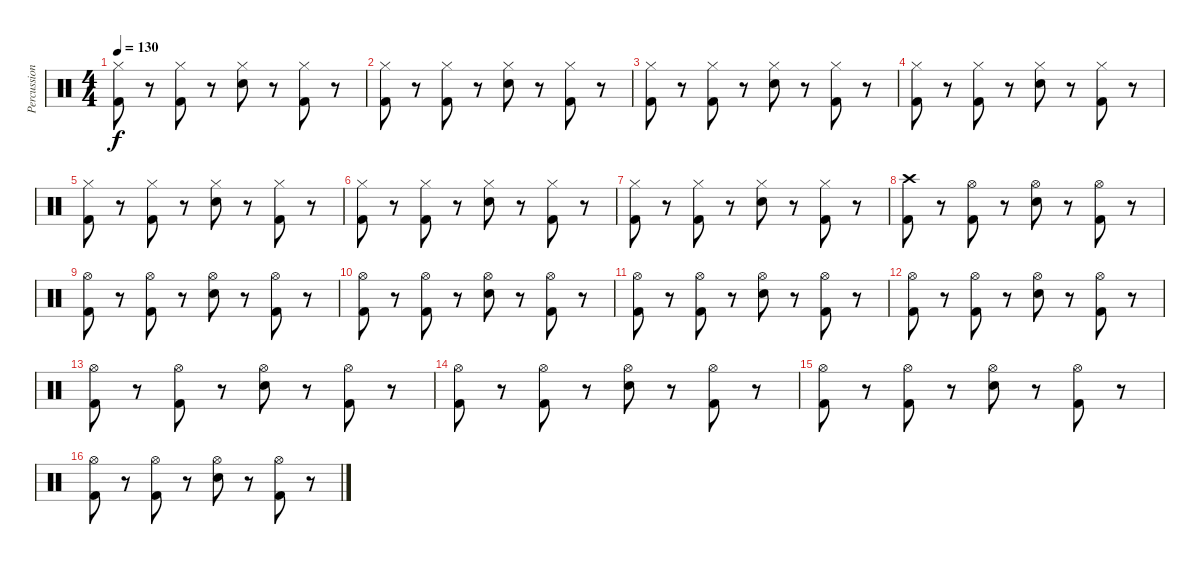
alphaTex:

\track ("Percussion" "Percussion") {instrument percussion}
\staff {score}
\articulation defaults
\ts (4 4)
\tempo 130
\clef neutral
\ks c
("Hi-Hat (closed)" "Kick (hit) 2").8{dy f} r.8 ("Hi-Hat (closed)" "Kick (hit) 2").8 r.8 ("Hi-Hat (closed)" "Snare (hit) 2").8 r.8 ("Hi-Hat (closed)" "Kick (hit) 2").8 r.8 |
("Hi-Hat (closed)" "Kick (hit) 2").8 r.8 ("Hi-Hat (closed)" "Kick (hit) 2").8 r.8 ("Hi-Hat (closed)" "Snare (hit) 2").8 r.8 ("Hi-Hat (closed)" "Kick (hit) 2").8 r.8 |
("Hi-Hat (closed)" "Kick (hit) 2").8 r.8 ("Hi-Hat (closed)" "Kick (hit) 2").8 r.8 ("Hi-Hat (closed)" "Snare (hit) 2").8 r.8 ("Hi-Hat (closed)" "Kick (hit) 2").8 r.8 |
("Hi-Hat (closed)" "Kick (hit) 2").8 r.8 ("Hi-Hat (closed)" "Kick (hit) 2").8 r.8 ("Hi-Hat (closed)" "Snare (hit) 2").8 r.8 ("Hi-Hat (closed)" "Kick (hit) 2").8 r.8 |
("Hi-Hat (closed)" "Kick (hit) 2").8 r.8 ("Hi-Hat (closed)" "Kick (hit) 2").8 r.8 ("Hi-Hat (closed)" "Snare (hit) 2").8 r.8 ("Hi-Hat (closed)" "Kick (hit) 2").8 r.8 |
("Hi-Hat (closed)" "Kick (hit) 2").8 r.8 ("Hi-Hat (closed)" "Kick (hit) 2").8 r.8 ("Hi-Hat (closed)" "Snare (hit) 2").8 r.8 ("Hi-Hat (closed)" "Kick (hit) 2").8 r.8 |
("Hi-Hat (closed)" "Kick (hit) 2").8 r.8 ("Hi-Hat (closed)" "Kick (hit) 2").8 r.8 ("Hi-Hat (closed)" "Snare (hit) 2").8 r.8 ("Hi-Hat (closed)" "Kick (hit) 2").8 r.8 |
("Crash high (hit)" "Kick (hit) 2").8 r.8 ("Hi-Hat (open)" "Kick (hit) 2").8 r.8 ("Hi-Hat (open)" "Snare (hit) 2").8 r.8 ("Hi-Hat (open)" "Kick (hit) 2").8 r.8 |
("Hi-Hat (open)" "Kick (hit) 2").8 r.8 ("Hi-Hat (open)" "Kick (hit) 2").8 r.8 ("Hi-Hat (open)" "Snare (hit) 2").8 r.8 ("Hi-Hat (open)" "Kick (hit) 2").8 r.8 |
("Hi-Hat (open)" "Kick (hit) 2").8 r.8 ("Hi-Hat (open)" "Kick (hit) 2").8 r.8 ("Hi-Hat (open)" "Snare (hit) 2").8 r.8 ("Hi-Hat (open)" "Kick (hit) 2").8 r.8 |
("Hi-Hat (open)" "Kick (hit) 2").8 r.8 ("Hi-Hat (open)" "Kick (hit) 2").8 r.8 ("Hi-Hat (open)" "Snare (hit) 2").8 r.8 ("Hi-Hat (open)" "Kick (hit) 2").8 r.8 |
("Hi-Hat (open)" "Kick (hit) 2").8 r.8 ("Hi-Hat (open)" "Kick (hit) 2").8 r.8 ("Hi-Hat (open)" "Snare (hit) 2").8 r.8 ("Hi-Hat (open)" "Kick (hit) 2").8 r.8 |
("Hi-Hat (open)" "Kick (hit) 2").8 r.8 ("Hi-Hat (open)" "Kick (hit) 2").8 r.8 ("Hi-Hat (open)" "Snare (hit) 2").8 r.8 ("Hi-Hat (open)" "Kick (hit) 2").8 r.8 |
("Hi-Hat (open)" "Kick (hit) 2").8 r.8 ("Hi-Hat (open)" "Kick (hit) 2").8 r.8 ("Hi-Hat (open)" "Snare (hit) 2").8 r.8 ("Hi-Hat (open)" "Kick (hit) 2").8 r.8 |
("Hi-Hat (open)" "Kick (hit) 2").8 r.8 ("Hi-Hat (open)" "Kick (hit) 2").8 r.8 ("Hi-Hat (open)" "Snare (hit) 2").8 r.8 ("Hi-Hat (open)" "Kick (hit) 2").8 r.8 |
("Hi-Hat (open)" "Kick (hit) 2").8 r.8 ("Hi-Hat (open)" "Kick (hit) 2").8 r.8 ("Hi-Hat (open)" "Snare (hit) 2").8 r.8 ("Hi-Hat (open)" "Kick (hit) 2").8 r.8
